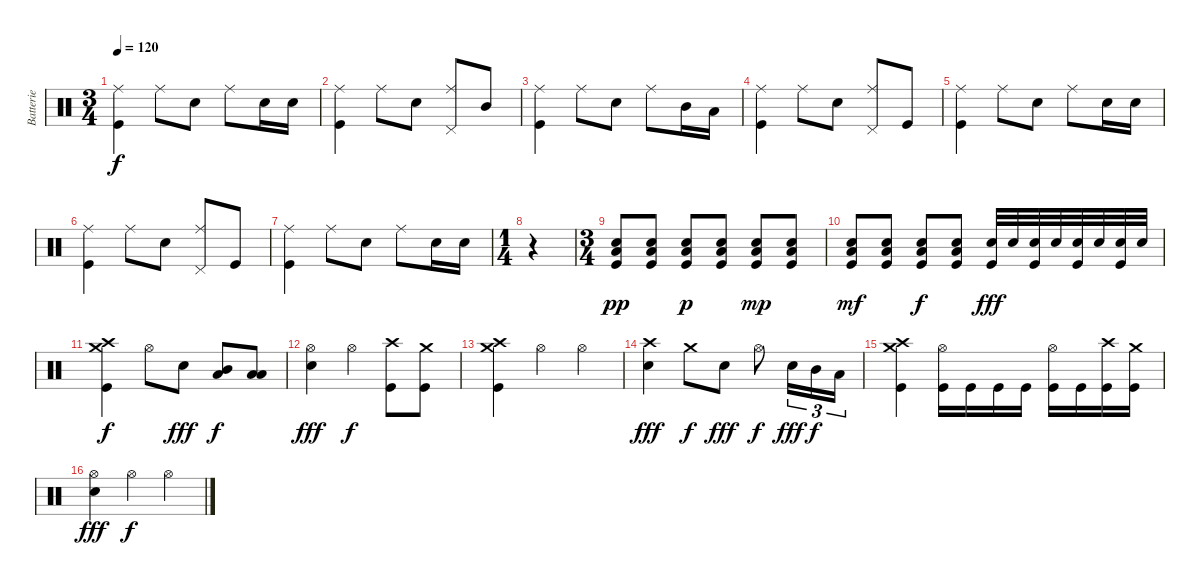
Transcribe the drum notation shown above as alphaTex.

\track ("Batterie" "Batterie") {instrument percussion}
\staff {score}
\articulation defaults
\ts (3 4)
\tempo 120
\clef neutral
\ks c
("Ride (middle)" "Kick (hit)").4{dy f} "Ride (middle)".8 "Electric Snare (hit)".8 "Ride (middle)".8 "Electric Snare (hit)".16 "Electric Snare (hit)".16 |
("Ride (middle)" "Kick (hit)").4 "Ride (middle)".8 "Electric Snare (hit)".8 ("Ride (middle)" "Pedal Hi-Hat (hit)").8 "Mid Tom (hit)".8 |
("Ride (middle)" "Kick (hit)").4 "Ride (middle)".8 "Electric Snare (hit)".8 "Ride (middle)".8 "Mid Tom (hit)".16 "Low Floor Tom (hit)".16 |
("Ride (middle)" "Kick (hit)").4 "Ride (middle)".8 "Electric Snare (hit)".8 ("Ride (middle)" "Pedal Hi-Hat (hit)").8 "Kick (hit)".8 |
("Ride (middle)" "Kick (hit)").4 "Ride (middle)".8 "Electric Snare (hit)".8 "Ride (middle)".8 "Electric Snare (hit)".16 "Electric Snare (hit)".16 |
("Ride (middle)" "Kick (hit)").4 "Ride (middle)".8 "Electric Snare (hit)".8 ("Ride (middle)" "Pedal Hi-Hat (hit)").8 "Kick (hit)".8 |
("Ride (middle)" "Kick (hit)").4 "Ride (middle)".8 "Electric Snare (hit)".8 "Ride (middle)".8 "Electric Snare (hit)".16 "Electric Snare (hit)".16 |
\ts (1 4)
r.4 |
\ts (3 4)
("Electric Snare (hit)" "Low Floor Tom (hit)" "Kick (hit)").8{dy pp} ("Electric Snare (hit)" "Low Floor Tom (hit)" "Kick (hit)").8 ("Electric Snare (hit)" "Low Floor Tom (hit)" "Kick (hit)").8{dy p} ("Electric Snare (hit)" "Low Floor Tom (hit)" "Kick (hit)").8 ("Electric Snare (hit)" "Low Floor Tom (hit)" "Kick (hit)").8{dy mp} ("Electric Snare (hit)" "Low Floor Tom (hit)" "Kick (hit)").8 |
("Electric Snare (hit)" "Low Floor Tom (hit)" "Kick (hit)").8{dy mf} ("Electric Snare (hit)" "Low Floor Tom (hit)" "Kick (hit)").8 ("Electric Snare (hit)" "Low Floor Tom (hit)" "Kick (hit)").8{dy f} ("Electric Snare (hit)" "Low Floor Tom (hit)" "Kick (hit)").8 ("Electric Snare (hit)" "Kick (hit)").32{dy fff} "Electric Snare (hit)".32 ("Electric Snare (hit)" "Kick (hit)").32 "Electric Snare (hit)".32 ("Electric Snare (hit)" "Kick (hit)").32 "Electric Snare (hit)".32 ("Electric Snare (hit)" "Kick (hit)").32 "Electric Snare (hit)".32 |
("Crash medium (hit)" "Crash high (hit)" "Kick (hit)").4{dy f} "Hi-Hat (open)".8 "Electric Snare (hit)".8{dy fff} ("Mid Tom (hit)" "Low Tom (hit)").8{dy f} ("Low Tom (hit)" "Low Floor Tom (hit)").8 |
("Hi-Hat (open)" "Electric Snare (hit)").4{dy fff} "Hi-Hat (open)".4{dy f} ("Crash high (hit)" "Kick (hit)").8 ("Crash medium (hit)" "Kick (hit)").8 |
("Crash medium (hit)" "Crash high (hit)" "Kick (hit)").4 "Hi-Hat (open)".4 "Hi-Hat (open)".4 |
("Crash high (hit)" "Electric Snare (hit)").4{dy fff} "Crash medium (hit)".8{dy f} "Electric Snare (hit)".8{dy fff} "Hi-Hat (open)".8{dy f} "Electric Snare (hit)".16{tu (3 2) dy fff} "Mid Tom (hit)".16{tu (3 2) dy f} "Low Floor Tom (hit)".16{tu (3 2)} |
("Crash medium (hit)" "Crash high (hit)" "Kick (hit)").4 ("Hi-Hat (open)" "Kick (hit)").16 "Kick (hit)".16 "Kick (hit)".16 "Kick (hit)".16 ("Hi-Hat (open)" "Kick (hit)").16 "Kick (hit)".16 ("Crash high (hit)" "Kick (hit)").16 ("Crash medium (hit)" "Kick (hit)").16 |
("Hi-Hat (open)" "Electric Snare (hit)").4{dy fff} "Hi-Hat (open)".4{dy f} "Hi-Hat (open)".4
